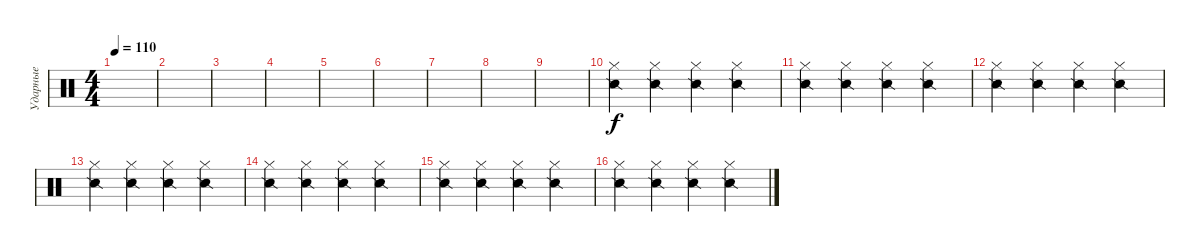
\track ("Ударные" "Ударные") {instrument percussion}
\staff {score}
\articulation defaults
\ts (4 4)
\tempo 110
\clef neutral
\ks c
|
|
|
|
|
|
|
|
|
("Hi-Hat (closed)" "Snare (side stick) 2").4 ("Hi-Hat (closed)" "Snare (side stick) 2").4 ("Hi-Hat (closed)" "Snare (side stick) 2").4 ("Hi-Hat (closed)" "Snare (side stick) 2").4 |
("Hi-Hat (closed)" "Snare (side stick) 2").4 ("Hi-Hat (closed)" "Snare (side stick) 2").4 ("Hi-Hat (closed)" "Snare (side stick) 2").4 ("Hi-Hat (closed)" "Snare (side stick) 2").4 |
("Hi-Hat (closed)" "Snare (side stick) 2").4 ("Hi-Hat (closed)" "Snare (side stick) 2").4 ("Hi-Hat (closed)" "Snare (side stick) 2").4 ("Hi-Hat (closed)" "Snare (side stick) 2").4 |
("Hi-Hat (closed)" "Snare (side stick) 2").4 ("Hi-Hat (closed)" "Snare (side stick) 2").4 ("Hi-Hat (closed)" "Snare (side stick) 2").4 ("Hi-Hat (closed)" "Snare (side stick) 2").4 |
("Hi-Hat (closed)" "Snare (side stick) 2").4 ("Hi-Hat (closed)" "Snare (side stick) 2").4 ("Hi-Hat (closed)" "Snare (side stick) 2").4 ("Hi-Hat (closed)" "Snare (side stick) 2").4 |
("Hi-Hat (closed)" "Snare (side stick) 2").4 ("Hi-Hat (closed)" "Snare (side stick) 2").4 ("Hi-Hat (closed)" "Snare (side stick) 2").4 ("Hi-Hat (closed)" "Snare (side stick) 2").4 |
("Hi-Hat (closed)" "Snare (side stick) 2").4 ("Hi-Hat (closed)" "Snare (side stick) 2").4 ("Hi-Hat (closed)" "Snare (side stick) 2").4 ("Hi-Hat (closed)" "Snare (side stick) 2").4
